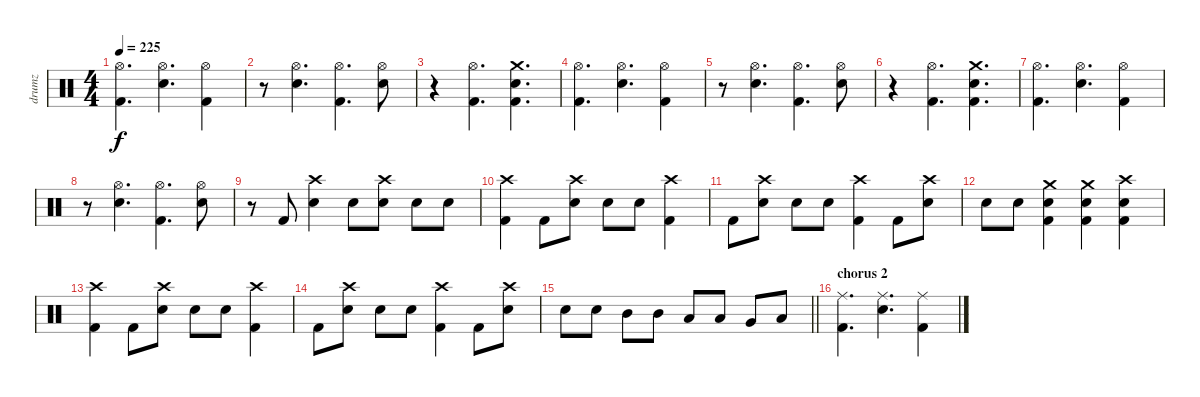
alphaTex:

\track ("drumz" "drumz") {instrument percussion}
\staff {score}
\articulation defaults
\ts (4 4)
\tempo 225
\clef neutral
\ks c
("Hi-Hat (open)" "Kick (hit) 2").4{d dy f} ("Hi-Hat (open)" "Electric Snare (hit)").4{d} ("Hi-Hat (open)" "Kick (hit) 2").4 |
r.8 ("Hi-Hat (open)" "Electric Snare (hit)").4{d} ("Hi-Hat (open)" "Kick (hit) 2").4{d} ("Hi-Hat (open)" "Electric Snare (hit)").8 |
r.4 ("Hi-Hat (open)" "Kick (hit) 2").4{d} ("Crash medium (hit)" "Electric Snare (hit)" "Kick (hit) 2").4{d} |
("Hi-Hat (open)" "Kick (hit) 2").4{d} ("Hi-Hat (open)" "Electric Snare (hit)").4{d} ("Hi-Hat (open)" "Kick (hit) 2").4 |
r.8 ("Hi-Hat (open)" "Electric Snare (hit)").4{d} ("Hi-Hat (open)" "Kick (hit) 2").4{d} ("Hi-Hat (open)" "Electric Snare (hit)").8 |
r.4 ("Hi-Hat (open)" "Kick (hit) 2").4{d} ("Crash medium (hit)" "Electric Snare (hit)" "Kick (hit) 2").4{d} |
("Hi-Hat (open)" "Kick (hit) 2").4{d} ("Hi-Hat (open)" "Electric Snare (hit)").4{d} ("Hi-Hat (open)" "Kick (hit) 2").4 |
r.8 ("Hi-Hat (open)" "Electric Snare (hit)").4{d} ("Hi-Hat (open)" "Kick (hit) 2").4{d} ("Hi-Hat (open)" "Electric Snare (hit)").8 |
r.8 "Kick (hit) 2".8 ("Crash high (hit)" "Electric Snare (hit)").4 "Electric Snare (hit)".8 ("Crash high (hit)" "Electric Snare (hit)").8 "Electric Snare (hit)".8 "Electric Snare (hit)".8 |
("Crash high (hit)" "Kick (hit) 2").4 "Kick (hit) 2".8 ("Crash high (hit)" "Electric Snare (hit)").8 "Electric Snare (hit)".8 "Electric Snare (hit)".8 ("Crash high (hit)" "Kick (hit) 2").4 |
"Kick (hit) 2".8 ("Crash high (hit)" "Electric Snare (hit)").8 "Electric Snare (hit)".8 "Electric Snare (hit)".8 ("Crash high (hit)" "Kick (hit) 2").4 "Kick (hit) 2".8 ("Crash high (hit)" "Electric Snare (hit)").8 |
"Electric Snare (hit)".8 "Electric Snare (hit)".8 ("Crash medium (hit)" "Electric Snare (hit)" "Kick (hit) 2").4 ("Crash medium (hit)" "Electric Snare (hit)" "Kick (hit) 2").4 ("Crash high (hit)" "Electric Snare (hit)" "Kick (hit) 2").4 |
("Crash high (hit)" "Kick (hit) 2").4 "Kick (hit) 2".8 ("Crash high (hit)" "Electric Snare (hit)").8 "Electric Snare (hit)".8 "Electric Snare (hit)".8 ("Crash high (hit)" "Kick (hit) 2").4 |
"Kick (hit) 2".8 ("Crash high (hit)" "Electric Snare (hit)").8 "Electric Snare (hit)".8 "Electric Snare (hit)".8 ("Crash high (hit)" "Kick (hit) 2").4 "Kick (hit) 2".8 ("Crash high (hit)" "Electric Snare (hit)").8 |
\barLineRight lightlight "Electric Snare (hit)".8 "Electric Snare (hit)".8 "Mid Tom (hit)".8 "Mid Tom (hit)".8 "Low Tom (hit)".8 "Low Tom (hit)".8 "Very Low Tom (hit)".8 "Low Floor Tom (hit)".8
|
\section ("" "chorus 2")
("Ride (middle)" "Kick (hit) 2").4{d} ("Ride (middle)" "Electric Snare (hit)").4{d} ("Ride (middle)" "Kick (hit) 2").4
